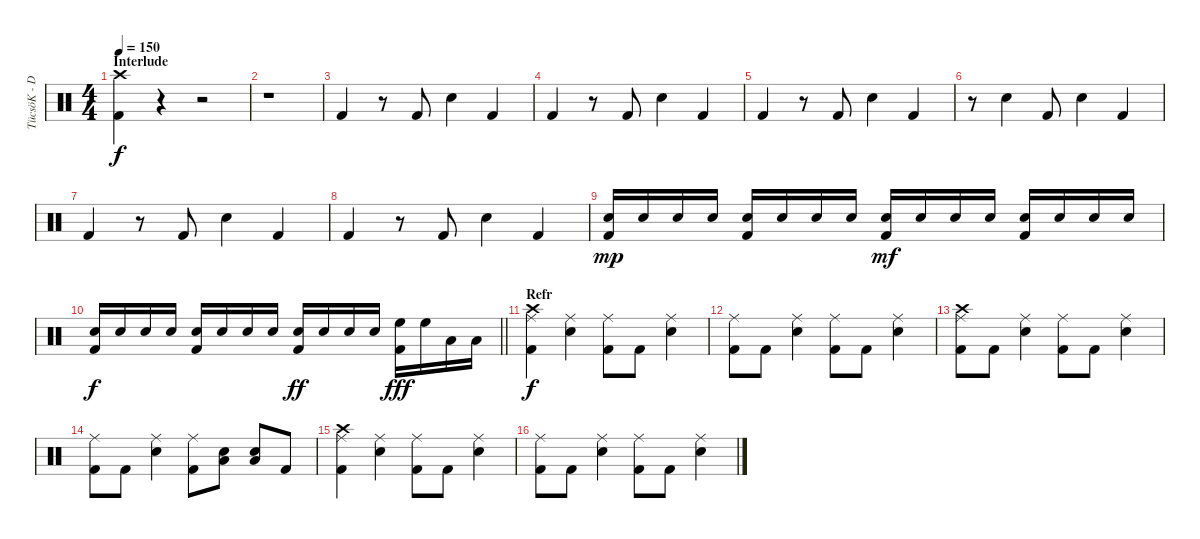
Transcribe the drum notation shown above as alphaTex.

\track ("TücsöK - Dob" "TücsöK - D") {instrument percussion}
\staff {score}
\articulation defaults
\ts (4 4)
\section ("" "Interlude")
\tempo 150
\clef neutral
\ks c
("Crash high (hit)" "Kick (hit) 2").4{dy f} r.4 r.2 |
r.1 |
"Kick (hit) 2".4 r.8 "Kick (hit) 2".8 "Snare (hit) 2".4 "Kick (hit) 2".4 |
"Kick (hit) 2".4 r.8 "Kick (hit) 2".8 "Snare (hit) 2".4 "Kick (hit) 2".4 |
"Kick (hit) 2".4 r.8 "Kick (hit) 2".8 "Snare (hit) 2".4 "Kick (hit) 2".4 |
r.8 "Snare (hit) 2".4 "Kick (hit) 2".8 "Snare (hit) 2".4 "Kick (hit) 2".4 |
"Kick (hit) 2".4 r.8 "Kick (hit) 2".8 "Snare (hit) 2".4 "Kick (hit) 2".4 |
"Kick (hit) 2".4 r.8 "Kick (hit) 2".8 "Snare (hit) 2".4 "Kick (hit) 2".4 |
("Snare (hit) 2" "Kick (hit) 2").16{dy mp} "Snare (hit) 2".16 "Snare (hit) 2".16 "Snare (hit) 2".16 ("Snare (hit) 2" "Kick (hit) 2").16 "Snare (hit) 2".16 "Snare (hit) 2".16 "Snare (hit) 2".16 ("Snare (hit) 2" "Kick (hit) 2").16{dy mf} "Snare (hit) 2".16 "Snare (hit) 2".16 "Snare (hit) 2".16 ("Snare (hit) 2" "Kick (hit) 2").16 "Snare (hit) 2".16 "Snare (hit) 2".16 "Snare (hit) 2".16 |
\barLineRight lightlight
("Snare (hit) 2" "Kick (hit) 2").16{dy f} "Snare (hit) 2".16 "Snare (hit) 2".16 "Snare (hit) 2".16 ("Snare (hit) 2" "Kick (hit) 2").16 "Snare (hit) 2".16 "Snare (hit) 2".16 "Snare (hit) 2".16 ("Snare (hit) 2" "Kick (hit) 2").16{dy ff} "Snare (hit) 2".16 "Snare (hit) 2".16 "Snare (hit) 2".16 ("High Floor Tom (hit)" "Kick (hit) 2").16{dy fff} "High Floor Tom (hit)".16 "Low Tom (hit)".16 "Low Tom (hit)".16 |
\section ("" "Refr")
("Crash high (hit)" "Ride (middle)" "Kick (hit) 2").4{dy f} ("Ride (middle)" "Snare (hit) 2").4 ("Ride (middle)" "Kick (hit) 2").8 "Kick (hit) 2".8 ("Ride (middle)" "Snare (hit) 2").4 |
("Ride (middle)" "Kick (hit) 2").8 "Kick (hit) 2".8 ("Ride (middle)" "Snare (hit) 2").4 ("Ride (middle)" "Kick (hit) 2").8 "Kick (hit) 2".8 ("Ride (middle)" "Snare (hit) 2").4 |
("Crash high (hit)" "Ride (middle)" "Kick (hit) 2").8 "Kick (hit) 2".8 ("Ride (middle)" "Snare (hit) 2").4 ("Ride (middle)" "Kick (hit) 2").8 "Kick (hit) 2".8 ("Ride (middle)" "Snare (hit) 2").4 |
("Ride (middle)" "Kick (hit) 2").8 "Kick (hit) 2".8 ("Ride (middle)" "Snare (hit) 2").4 ("Ride (middle)" "Kick (hit) 2").8 ("Snare (hit) 2" "Low Tom (hit)").8 ("Snare (hit) 2" "Low Tom (hit)").8 "Kick (hit) 2".8 |
("Crash high (hit)" "Ride (middle)" "Kick (hit) 2").4 ("Ride (middle)" "Snare (hit) 2").4 ("Ride (middle)" "Kick (hit) 2").8 "Kick (hit) 2".8 ("Ride (middle)" "Snare (hit) 2").4 |
("Ride (middle)" "Kick (hit) 2").8 "Kick (hit) 2".8 ("Ride (middle)" "Snare (hit) 2").4 ("Ride (middle)" "Kick (hit) 2").8 "Kick (hit) 2".8 ("Ride (middle)" "Snare (hit) 2").4
